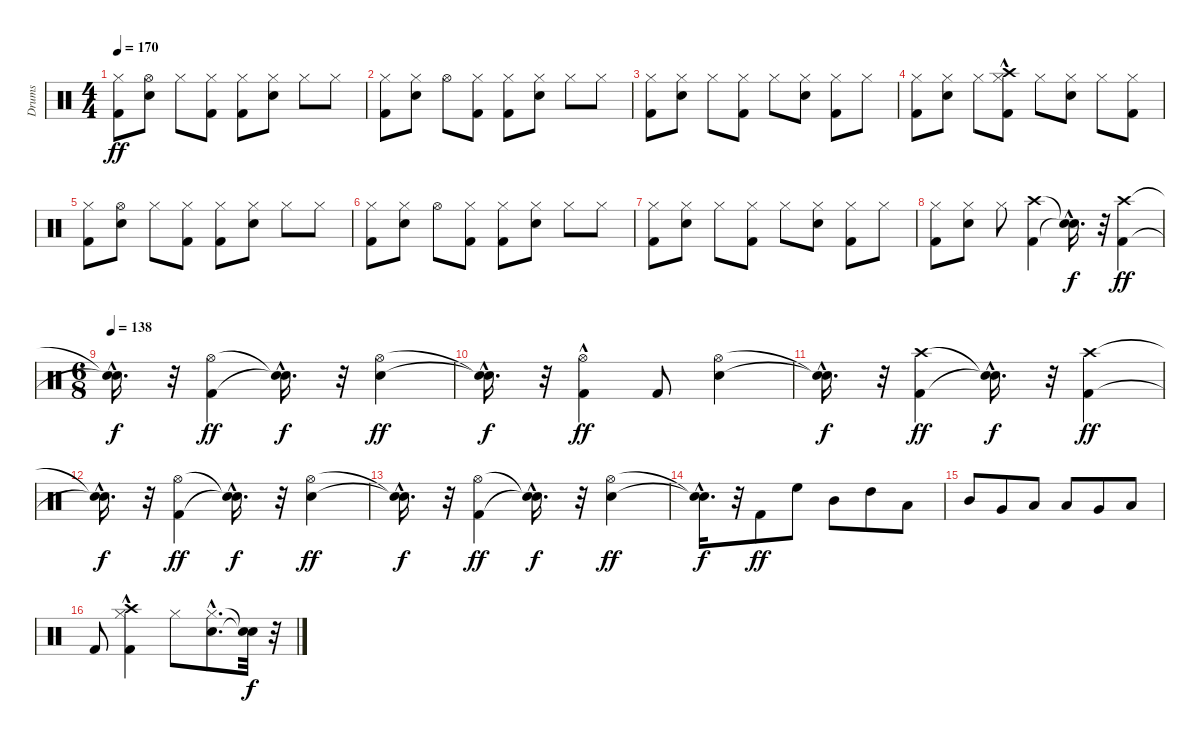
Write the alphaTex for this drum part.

\track ("Drums" "Drums") {instrument percussion}
\staff {score}
\articulation defaults
\ts (4 4)
\tempo 170
\clef neutral
\ks c
("Kick (hit) 2" "Hi-Hat (closed)").8{dy ff} ("Snare (hit) 2" "Hi-Hat (open)").8 "Hi-Hat (closed)".8 ("Kick (hit) 2" "Hi-Hat (closed)").8 ("Kick (hit) 2" "Hi-Hat (closed)").8 ("Snare (hit) 2" "Hi-Hat (closed)").8 "Hi-Hat (closed)".8 "Hi-Hat (closed)".8 |
("Kick (hit) 2" "Hi-Hat (closed)").8 ("Snare (hit) 2" "Hi-Hat (closed)").8 "Hi-Hat (open)".8 ("Kick (hit) 2" "Hi-Hat (closed)").8 ("Kick (hit) 2" "Hi-Hat (closed)").8 ("Snare (hit) 2" "Hi-Hat (closed)").8 "Hi-Hat (closed)".8 "Hi-Hat (closed)".8 |
("Kick (hit) 2" "Hi-Hat (closed)").8 ("Snare (hit) 2" "Hi-Hat (closed)").8 "Hi-Hat (closed)".8 ("Kick (hit) 2" "Hi-Hat (closed)").8 "Hi-Hat (closed)".8 ("Snare (hit) 2" "Hi-Hat (closed)").8 ("Kick (hit) 2" "Hi-Hat (closed)").8 "Hi-Hat (closed)".8 |
("Kick (hit) 2" "Hi-Hat (closed)").8 ("Snare (hit) 2" "Hi-Hat (closed)").8 "Hi-Hat (closed)".8 ("Kick (hit) 2" "Hi-Hat (closed)" "Crash high (hit)"{hac}).8 "Hi-Hat (closed)".8 ("Snare (hit) 2" "Hi-Hat (closed)").8 "Hi-Hat (closed)".8 ("Kick (hit) 2" "Hi-Hat (closed)").8 |
("Kick (hit) 2" "Hi-Hat (closed)").8 ("Snare (hit) 2" "Hi-Hat (open)").8 "Hi-Hat (closed)".8 ("Kick (hit) 2" "Hi-Hat (closed)").8 ("Kick (hit) 2" "Hi-Hat (closed)").8 ("Snare (hit) 2" "Hi-Hat (closed)").8 "Hi-Hat (closed)".8 "Hi-Hat (closed)".8 |
("Kick (hit) 2" "Hi-Hat (closed)").8 ("Snare (hit) 2" "Hi-Hat (closed)").8 "Hi-Hat (open)".8 ("Kick (hit) 2" "Hi-Hat (closed)").8 ("Kick (hit) 2" "Hi-Hat (closed)").8 ("Snare (hit) 2" "Hi-Hat (closed)").8 "Hi-Hat (closed)".8 "Hi-Hat (closed)".8 |
("Kick (hit) 2" "Hi-Hat (closed)").8 ("Snare (hit) 2" "Hi-Hat (closed)").8 "Hi-Hat (closed)".8 ("Kick (hit) 2" "Hi-Hat (closed)").8 "Hi-Hat (closed)".8 ("Snare (hit) 2" "Hi-Hat (closed)").8 ("Kick (hit) 2" "Hi-Hat (closed)").8 "Hi-Hat (closed)".8 |
("Kick (hit) 2" "Hi-Hat (closed)").8 ("Snare (hit) 2" "Hi-Hat (closed)").8 "Hi-Hat (closed)".8 ("Kick (hit) 2" "Crash high (hit)").4 ("Snare (hit)"{hac t} "Snare (hit)"{hac t}).16{d dy f} r.32 ("Kick (hit) 2" "Crash high (hit)").4{dy ff} |
\ts (6 8)
\tempo 138
("Snare (hit)"{hac t} "Snare (hit)"{hac t}).16{d dy f} r.32 ("Kick (hit) 2" "Hi-Hat (open)").4{dy ff} ("Snare (hit)"{hac t} "Snare (hit)"{hac t}).16{d dy f} r.32 ("Snare (hit) 2" "Hi-Hat (open)").4{dy ff} |
("Snare (hit)"{hac t} "Snare (hit)"{hac t}).16{d dy f} r.32 ("Kick (hit) 2"{hac} "Hi-Hat (open)").4{dy ff} "Kick (hit) 2".8 ("Snare (hit) 2" "Hi-Hat (open)").4 |
("Snare (hit)"{hac t} "Snare (hit)"{hac t}).16{d dy f} r.32 ("Kick (hit) 2" "Crash high (hit)").4{dy ff} ("Snare (hit)"{hac t} "Snare (hit)"{hac t}).16{d dy f} r.32 ("Kick (hit) 2" "Crash high (hit)").4{dy ff} |
("Snare (hit)"{hac t} "Snare (hit)"{hac t}).16{d dy f} r.32 ("Kick (hit) 2" "Hi-Hat (open)").4{dy ff} ("Snare (hit)"{hac t} "Snare (hit)"{hac t}).16{d dy f} r.32 ("Snare (hit) 2" "Hi-Hat (open)").4{dy ff} |
("Snare (hit)"{hac t} "Snare (hit)"{hac t}).16{d dy f} r.32 ("Kick (hit) 2" "Hi-Hat (open)").4{dy ff} ("Snare (hit)"{hac t} "Snare (hit)"{hac t}).16{d dy f} r.32 ("Snare (hit) 2" "Hi-Hat (open)").4{dy ff} |
("Snare (hit)"{hac t} "Snare (hit)"{hac t}).16{d dy f} r.32 "Kick (hit) 2".8{dy ff} "High Floor Tom (hit)".8 "Mid Tom (hit)".8 "High Tom (hit)".8 "Low Tom (hit)".8 |
"Mid Tom (hit)".8 "Very Low Tom (hit)".8 "Low Tom (hit)".8 "Low Floor Tom (hit)".8 "Very Low Tom (hit)".8 "Low Floor Tom (hit)".8 |
"Kick (hit) 2".8 ("Kick (hit) 2"{hac} "Hi-Hat (closed)"{hac} "Crash high (hit)").4 "Hi-Hat (closed)".8 ("Snare (hit) 2"{hac} "Hi-Hat (closed)"{hac}).8{d} ("Snare (hit)"{t} "Snare (hit)"{t}).32{dy f} r.32
